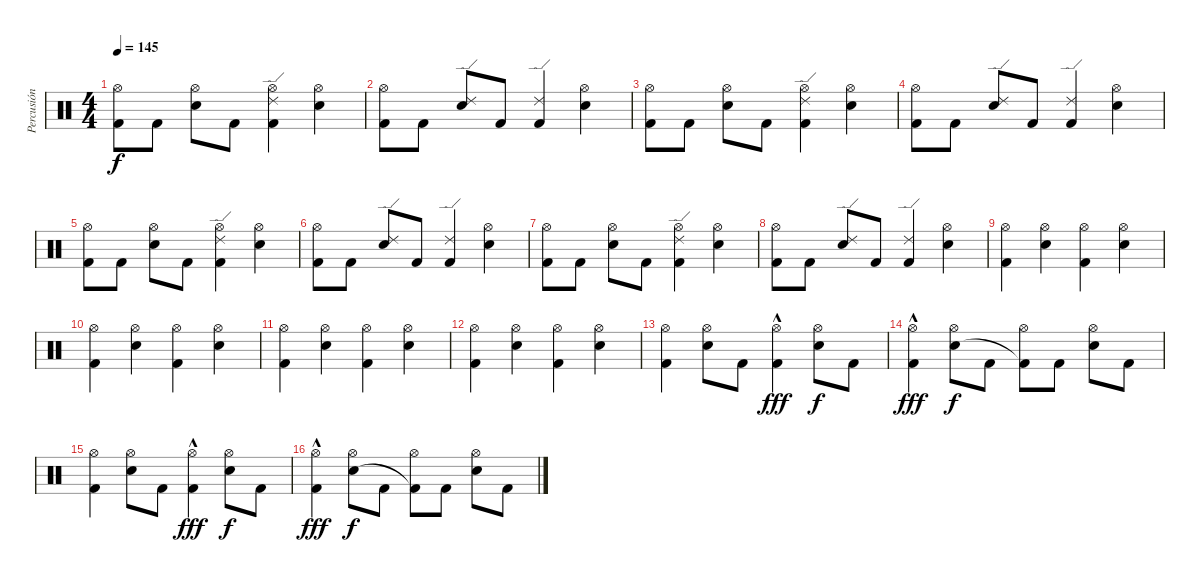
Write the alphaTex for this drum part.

\track ("Percusión" "Percusión") {instrument percussion}
\staff {score}
\articulation defaults
\ts (4 4)
\tempo 145
\clef neutral
\ks c
("Hi-Hat (open)" "Kick (hit) 2").8{dy f} "Kick (hit) 2".8 ("Hi-Hat (open)" "Snare (hit) 2").8 "Kick (hit) 2".8 ("Hi-Hat (open)" "Ride (edge) 2" "Kick (hit) 2").4 ("Hi-Hat (open)" "Snare (hit) 2").4 |
("Hi-Hat (open)" "Kick (hit) 2").8 "Kick (hit) 2".8 ("Ride (edge) 2" "Snare (hit) 2").8 "Kick (hit) 2".8 ("Ride (edge) 2" "Kick (hit) 2").4 ("Hi-Hat (open)" "Snare (hit) 2").4 |
("Hi-Hat (open)" "Kick (hit) 2").8 "Kick (hit) 2".8 ("Hi-Hat (open)" "Snare (hit) 2").8 "Kick (hit) 2".8 ("Hi-Hat (open)" "Ride (edge) 2" "Kick (hit) 2").4 ("Hi-Hat (open)" "Snare (hit) 2").4 |
("Hi-Hat (open)" "Kick (hit) 2").8 "Kick (hit) 2".8 ("Ride (edge) 2" "Snare (hit) 2").8 "Kick (hit) 2".8 ("Ride (edge) 2" "Kick (hit) 2").4 ("Hi-Hat (open)" "Snare (hit) 2").4 |
("Hi-Hat (open)" "Kick (hit) 2").8 "Kick (hit) 2".8 ("Hi-Hat (open)" "Snare (hit) 2").8 "Kick (hit) 2".8 ("Hi-Hat (open)" "Ride (edge) 2" "Kick (hit) 2").4 ("Hi-Hat (open)" "Snare (hit) 2").4 |
("Hi-Hat (open)" "Kick (hit) 2").8 "Kick (hit) 2".8 ("Ride (edge) 2" "Snare (hit) 2").8 "Kick (hit) 2".8 ("Ride (edge) 2" "Kick (hit) 2").4 ("Hi-Hat (open)" "Snare (hit) 2").4 |
("Hi-Hat (open)" "Kick (hit) 2").8 "Kick (hit) 2".8 ("Hi-Hat (open)" "Snare (hit) 2").8 "Kick (hit) 2".8 ("Hi-Hat (open)" "Ride (edge) 2" "Kick (hit) 2").4 ("Hi-Hat (open)" "Snare (hit) 2").4 |
("Hi-Hat (open)" "Kick (hit) 2").8 "Kick (hit) 2".8 ("Ride (edge) 2" "Snare (hit) 2").8 "Kick (hit) 2".8 ("Ride (edge) 2" "Kick (hit) 2").4 ("Hi-Hat (open)" "Snare (hit) 2").4 |
("Hi-Hat (open)" "Kick (hit) 2").4 ("Hi-Hat (open)" "Snare (hit) 2").4 ("Hi-Hat (open)" "Kick (hit) 2").4 ("Hi-Hat (open)" "Snare (hit) 2").4 |
("Hi-Hat (open)" "Kick (hit) 2").4 ("Hi-Hat (open)" "Snare (hit) 2").4 ("Hi-Hat (open)" "Kick (hit) 2").4 ("Hi-Hat (open)" "Snare (hit) 2").4 |
("Hi-Hat (open)" "Kick (hit) 2").4 ("Hi-Hat (open)" "Snare (hit) 2").4 ("Hi-Hat (open)" "Kick (hit) 2").4 ("Hi-Hat (open)" "Snare (hit) 2").4 |
("Hi-Hat (open)" "Kick (hit) 2").4 ("Hi-Hat (open)" "Snare (hit) 2").4 ("Hi-Hat (open)" "Kick (hit) 2").4 ("Hi-Hat (open)" "Snare (hit) 2").4 |
("Hi-Hat (open)" "Kick (hit) 2").4 ("Hi-Hat (open)" "Snare (hit) 2").8 "Kick (hit) 2".8 ("Hi-Hat (open)" "Kick (hit) 2"{hac}).4{dy fff} ("Hi-Hat (open)" "Snare (hit) 2").8{dy f} "Kick (hit) 2".8 |
("Hi-Hat (open)" "Kick (hit) 2"{hac}).4{dy fff} ("Hi-Hat (open)" "Snare (hit) 2").8{dy f} "Kick (hit) 2".8 ("Hi-Hat (open)" "Kick (hit) 2"{t}).8 "Kick (hit) 2".8 ("Hi-Hat (open)" "Snare (hit) 2").8 "Kick (hit) 2".8 |
("Hi-Hat (open)" "Kick (hit) 2").4 ("Hi-Hat (open)" "Snare (hit) 2").8 "Kick (hit) 2".8 ("Hi-Hat (open)" "Kick (hit) 2"{hac}).4{dy fff} ("Hi-Hat (open)" "Snare (hit) 2").8{dy f} "Kick (hit) 2".8 |
("Hi-Hat (open)" "Kick (hit) 2"{hac}).4{dy fff} ("Hi-Hat (open)" "Snare (hit) 2").8{dy f} "Kick (hit) 2".8 ("Hi-Hat (open)" "Kick (hit) 2"{t}).8 "Kick (hit) 2".8 ("Hi-Hat (open)" "Snare (hit) 2").8 "Kick (hit) 2".8
